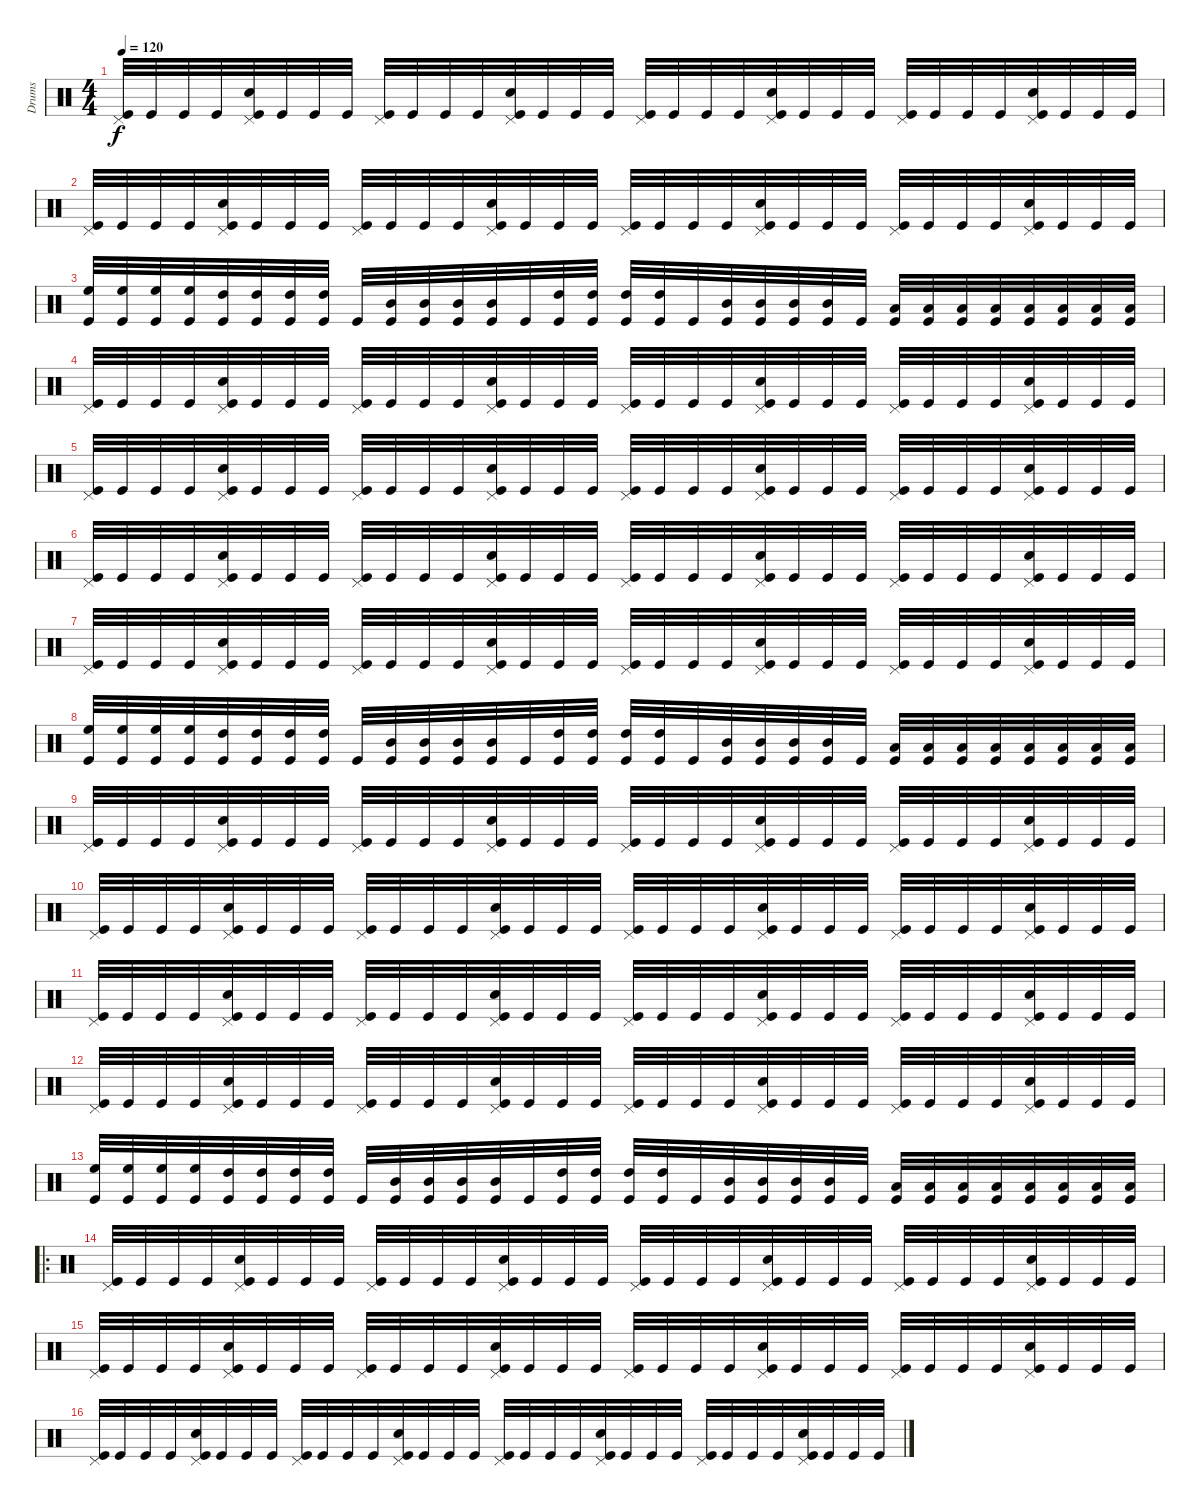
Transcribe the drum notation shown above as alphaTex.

\track ("Drums" "Drums") {instrument percussion}
\staff {score}
\articulation defaults
\ts (4 4)
\tempo 120
\clef neutral
\ks c
("Kick (hit)" "Pedal Hi-Hat (hit)").32{dy f} "Kick (hit)".32 "Kick (hit)".32 "Kick (hit)".32 ("Kick (hit)" "Snare (hit) 2" "Pedal Hi-Hat (hit)").32 "Kick (hit)".32 "Kick (hit)".32 "Kick (hit)".32 ("Kick (hit)" "Pedal Hi-Hat (hit)").32 "Kick (hit)".32 "Kick (hit)".32 "Kick (hit)".32 ("Kick (hit)" "Snare (hit) 2" "Pedal Hi-Hat (hit)").32 "Kick (hit)".32 "Kick (hit)".32 "Kick (hit)".32 ("Kick (hit)" "Pedal Hi-Hat (hit)").32 "Kick (hit)".32 "Kick (hit)".32 "Kick (hit)".32 ("Kick (hit)" "Snare (hit) 2" "Pedal Hi-Hat (hit)").32 "Kick (hit)".32 "Kick (hit)".32 "Kick (hit)".32 ("Kick (hit)" "Pedal Hi-Hat (hit)").32 "Kick (hit)".32 "Kick (hit)".32 "Kick (hit)".32 ("Kick (hit)" "Snare (hit) 2" "Pedal Hi-Hat (hit)").32 "Kick (hit)".32 "Kick (hit)".32 "Kick (hit)".32 |
("Kick (hit)" "Pedal Hi-Hat (hit)").32 "Kick (hit)".32 "Kick (hit)".32 "Kick (hit)".32 ("Kick (hit)" "Snare (hit) 2" "Pedal Hi-Hat (hit)").32 "Kick (hit)".32 "Kick (hit)".32 "Kick (hit)".32 ("Kick (hit)" "Pedal Hi-Hat (hit)").32 "Kick (hit)".32 "Kick (hit)".32 "Kick (hit)".32 ("Kick (hit)" "Snare (hit) 2" "Pedal Hi-Hat (hit)").32 "Kick (hit)".32 "Kick (hit)".32 "Kick (hit)".32 ("Kick (hit)" "Pedal Hi-Hat (hit)").32 "Kick (hit)".32 "Kick (hit)".32 "Kick (hit)".32 ("Kick (hit)" "Snare (hit) 2" "Pedal Hi-Hat (hit)").32 "Kick (hit)".32 "Kick (hit)".32 "Kick (hit)".32 ("Kick (hit)" "Pedal Hi-Hat (hit)").32 "Kick (hit)".32 "Kick (hit)".32 "Kick (hit)".32 ("Kick (hit)" "Snare (hit) 2" "Pedal Hi-Hat (hit)").32 "Kick (hit)".32 "Kick (hit)".32 "Kick (hit)".32 |
("Kick (hit)" "High Floor Tom (hit)").32 ("Kick (hit)" "High Floor Tom (hit)").32 ("Kick (hit)" "High Floor Tom (hit)").32 ("Kick (hit)" "High Floor Tom (hit)").32 ("Kick (hit)" "High Tom (hit)").32 ("Kick (hit)" "High Tom (hit)").32 ("Kick (hit)" "High Tom (hit)").32 ("Kick (hit)" "High Tom (hit)").32 "Kick (hit)".32 ("Kick (hit)" "Mid Tom (hit)").32 ("Kick (hit)" "Mid Tom (hit)").32 ("Kick (hit)" "Mid Tom (hit)").32 ("Kick (hit)" "Mid Tom (hit)").32 "Kick (hit)".32 ("Kick (hit)" "High Tom (hit)").32 ("Kick (hit)" "High Tom (hit)").32 ("Kick (hit)" "High Tom (hit)").32 ("Kick (hit)" "High Tom (hit)").32 "Kick (hit)".32 ("Kick (hit)" "Mid Tom (hit)").32 ("Kick (hit)" "Mid Tom (hit)").32 ("Kick (hit)" "Mid Tom (hit)").32 ("Kick (hit)" "Mid Tom (hit)").32 "Kick (hit)".32 ("Kick (hit)" "Low Tom (hit)").32 ("Kick (hit)" "Low Tom (hit)").32 ("Kick (hit)" "Low Tom (hit)").32 ("Kick (hit)" "Low Tom (hit)").32 ("Kick (hit)" "Low Tom (hit)").32 ("Kick (hit)" "Low Tom (hit)").32 ("Kick (hit)" "Low Tom (hit)").32 ("Kick (hit)" "Low Tom (hit)").32 |
("Kick (hit)" "Pedal Hi-Hat (hit)").32 "Kick (hit)".32 "Kick (hit)".32 "Kick (hit)".32 ("Kick (hit)" "Snare (hit) 2" "Pedal Hi-Hat (hit)").32 "Kick (hit)".32 "Kick (hit)".32 "Kick (hit)".32 ("Kick (hit)" "Pedal Hi-Hat (hit)").32 "Kick (hit)".32 "Kick (hit)".32 "Kick (hit)".32 ("Kick (hit)" "Snare (hit) 2" "Pedal Hi-Hat (hit)").32 "Kick (hit)".32 "Kick (hit)".32 "Kick (hit)".32 ("Kick (hit)" "Pedal Hi-Hat (hit)").32 "Kick (hit)".32 "Kick (hit)".32 "Kick (hit)".32 ("Kick (hit)" "Snare (hit) 2" "Pedal Hi-Hat (hit)").32 "Kick (hit)".32 "Kick (hit)".32 "Kick (hit)".32 ("Kick (hit)" "Pedal Hi-Hat (hit)").32 "Kick (hit)".32 "Kick (hit)".32 "Kick (hit)".32 ("Kick (hit)" "Snare (hit) 2" "Pedal Hi-Hat (hit)").32 "Kick (hit)".32 "Kick (hit)".32 "Kick (hit)".32 |
("Kick (hit)" "Pedal Hi-Hat (hit)").32 "Kick (hit)".32 "Kick (hit)".32 "Kick (hit)".32 ("Kick (hit)" "Snare (hit) 2" "Pedal Hi-Hat (hit)").32 "Kick (hit)".32 "Kick (hit)".32 "Kick (hit)".32 ("Kick (hit)" "Pedal Hi-Hat (hit)").32 "Kick (hit)".32 "Kick (hit)".32 "Kick (hit)".32 ("Kick (hit)" "Snare (hit) 2" "Pedal Hi-Hat (hit)").32 "Kick (hit)".32 "Kick (hit)".32 "Kick (hit)".32 ("Kick (hit)" "Pedal Hi-Hat (hit)").32 "Kick (hit)".32 "Kick (hit)".32 "Kick (hit)".32 ("Kick (hit)" "Snare (hit) 2" "Pedal Hi-Hat (hit)").32 "Kick (hit)".32 "Kick (hit)".32 "Kick (hit)".32 ("Kick (hit)" "Pedal Hi-Hat (hit)").32 "Kick (hit)".32 "Kick (hit)".32 "Kick (hit)".32 ("Kick (hit)" "Snare (hit) 2" "Pedal Hi-Hat (hit)").32 "Kick (hit)".32 "Kick (hit)".32 "Kick (hit)".32 |
("Kick (hit)" "Pedal Hi-Hat (hit)").32 "Kick (hit)".32 "Kick (hit)".32 "Kick (hit)".32 ("Kick (hit)" "Snare (hit) 2" "Pedal Hi-Hat (hit)").32 "Kick (hit)".32 "Kick (hit)".32 "Kick (hit)".32 ("Kick (hit)" "Pedal Hi-Hat (hit)").32 "Kick (hit)".32 "Kick (hit)".32 "Kick (hit)".32 ("Kick (hit)" "Snare (hit) 2" "Pedal Hi-Hat (hit)").32 "Kick (hit)".32 "Kick (hit)".32 "Kick (hit)".32 ("Kick (hit)" "Pedal Hi-Hat (hit)").32 "Kick (hit)".32 "Kick (hit)".32 "Kick (hit)".32 ("Kick (hit)" "Snare (hit) 2" "Pedal Hi-Hat (hit)").32 "Kick (hit)".32 "Kick (hit)".32 "Kick (hit)".32 ("Kick (hit)" "Pedal Hi-Hat (hit)").32 "Kick (hit)".32 "Kick (hit)".32 "Kick (hit)".32 ("Kick (hit)" "Snare (hit) 2" "Pedal Hi-Hat (hit)").32 "Kick (hit)".32 "Kick (hit)".32 "Kick (hit)".32 |
("Kick (hit)" "Pedal Hi-Hat (hit)").32 "Kick (hit)".32 "Kick (hit)".32 "Kick (hit)".32 ("Kick (hit)" "Snare (hit) 2" "Pedal Hi-Hat (hit)").32 "Kick (hit)".32 "Kick (hit)".32 "Kick (hit)".32 ("Kick (hit)" "Pedal Hi-Hat (hit)").32 "Kick (hit)".32 "Kick (hit)".32 "Kick (hit)".32 ("Kick (hit)" "Snare (hit) 2" "Pedal Hi-Hat (hit)").32 "Kick (hit)".32 "Kick (hit)".32 "Kick (hit)".32 ("Kick (hit)" "Pedal Hi-Hat (hit)").32 "Kick (hit)".32 "Kick (hit)".32 "Kick (hit)".32 ("Kick (hit)" "Snare (hit) 2" "Pedal Hi-Hat (hit)").32 "Kick (hit)".32 "Kick (hit)".32 "Kick (hit)".32 ("Kick (hit)" "Pedal Hi-Hat (hit)").32 "Kick (hit)".32 "Kick (hit)".32 "Kick (hit)".32 ("Kick (hit)" "Snare (hit) 2" "Pedal Hi-Hat (hit)").32 "Kick (hit)".32 "Kick (hit)".32 "Kick (hit)".32 |
("Kick (hit)" "High Floor Tom (hit)").32 ("Kick (hit)" "High Floor Tom (hit)").32 ("Kick (hit)" "High Floor Tom (hit)").32 ("Kick (hit)" "High Floor Tom (hit)").32 ("Kick (hit)" "High Tom (hit)").32 ("Kick (hit)" "High Tom (hit)").32 ("Kick (hit)" "High Tom (hit)").32 ("Kick (hit)" "High Tom (hit)").32 "Kick (hit)".32 ("Kick (hit)" "Mid Tom (hit)").32 ("Kick (hit)" "Mid Tom (hit)").32 ("Kick (hit)" "Mid Tom (hit)").32 ("Kick (hit)" "Mid Tom (hit)").32 "Kick (hit)".32 ("Kick (hit)" "High Tom (hit)").32 ("Kick (hit)" "High Tom (hit)").32 ("Kick (hit)" "High Tom (hit)").32 ("Kick (hit)" "High Tom (hit)").32 "Kick (hit)".32 ("Kick (hit)" "Mid Tom (hit)").32 ("Kick (hit)" "Mid Tom (hit)").32 ("Kick (hit)" "Mid Tom (hit)").32 ("Kick (hit)" "Mid Tom (hit)").32 "Kick (hit)".32 ("Kick (hit)" "Low Tom (hit)").32 ("Kick (hit)" "Low Tom (hit)").32 ("Kick (hit)" "Low Tom (hit)").32 ("Kick (hit)" "Low Tom (hit)").32 ("Kick (hit)" "Low Tom (hit)").32 ("Kick (hit)" "Low Tom (hit)").32 ("Kick (hit)" "Low Tom (hit)").32 ("Kick (hit)" "Low Tom (hit)").32 |
("Kick (hit)" "Pedal Hi-Hat (hit)").32 "Kick (hit)".32 "Kick (hit)".32 "Kick (hit)".32 ("Kick (hit)" "Snare (hit) 2" "Pedal Hi-Hat (hit)").32{volume 12} "Kick (hit)".32 "Kick (hit)".32 "Kick (hit)".32 ("Kick (hit)" "Pedal Hi-Hat (hit)").32 "Kick (hit)".32 "Kick (hit)".32 "Kick (hit)".32 ("Kick (hit)" "Snare (hit) 2" "Pedal Hi-Hat (hit)").32 "Kick (hit)".32 "Kick (hit)".32 "Kick (hit)".32 ("Kick (hit)" "Pedal Hi-Hat (hit)").32 "Kick (hit)".32 "Kick (hit)".32 "Kick (hit)".32 ("Kick (hit)" "Snare (hit) 2" "Pedal Hi-Hat (hit)").32 "Kick (hit)".32 "Kick (hit)".32 "Kick (hit)".32 ("Kick (hit)" "Pedal Hi-Hat (hit)").32 "Kick (hit)".32 "Kick (hit)".32 "Kick (hit)".32 ("Kick (hit)" "Snare (hit) 2" "Pedal Hi-Hat (hit)").32 "Kick (hit)".32 "Kick (hit)".32 "Kick (hit)".32 |
("Kick (hit)" "Pedal Hi-Hat (hit)").32 "Kick (hit)".32 "Kick (hit)".32 "Kick (hit)".32 ("Kick (hit)" "Snare (hit) 2" "Pedal Hi-Hat (hit)").32 "Kick (hit)".32 "Kick (hit)".32 "Kick (hit)".32 ("Kick (hit)" "Pedal Hi-Hat (hit)").32 "Kick (hit)".32 "Kick (hit)".32 "Kick (hit)".32 ("Kick (hit)" "Snare (hit) 2" "Pedal Hi-Hat (hit)").32 "Kick (hit)".32 "Kick (hit)".32 "Kick (hit)".32 ("Kick (hit)" "Pedal Hi-Hat (hit)").32 "Kick (hit)".32 "Kick (hit)".32 "Kick (hit)".32 ("Kick (hit)" "Snare (hit) 2" "Pedal Hi-Hat (hit)").32 "Kick (hit)".32 "Kick (hit)".32 "Kick (hit)".32 ("Kick (hit)" "Pedal Hi-Hat (hit)").32 "Kick (hit)".32 "Kick (hit)".32 "Kick (hit)".32 ("Kick (hit)" "Snare (hit) 2" "Pedal Hi-Hat (hit)").32 "Kick (hit)".32 "Kick (hit)".32 "Kick (hit)".32 |
("Kick (hit)" "Pedal Hi-Hat (hit)").32 "Kick (hit)".32 "Kick (hit)".32 "Kick (hit)".32 ("Kick (hit)" "Snare (hit) 2" "Pedal Hi-Hat (hit)").32 "Kick (hit)".32 "Kick (hit)".32 "Kick (hit)".32 ("Kick (hit)" "Pedal Hi-Hat (hit)").32 "Kick (hit)".32 "Kick (hit)".32 "Kick (hit)".32 ("Kick (hit)" "Snare (hit) 2" "Pedal Hi-Hat (hit)").32 "Kick (hit)".32 "Kick (hit)".32 "Kick (hit)".32 ("Kick (hit)" "Pedal Hi-Hat (hit)").32 "Kick (hit)".32 "Kick (hit)".32 "Kick (hit)".32 ("Kick (hit)" "Snare (hit) 2" "Pedal Hi-Hat (hit)").32 "Kick (hit)".32 "Kick (hit)".32 "Kick (hit)".32 ("Kick (hit)" "Pedal Hi-Hat (hit)").32 "Kick (hit)".32 "Kick (hit)".32 "Kick (hit)".32 ("Kick (hit)" "Snare (hit) 2" "Pedal Hi-Hat (hit)").32 "Kick (hit)".32 "Kick (hit)".32 "Kick (hit)".32 |
("Kick (hit)" "Pedal Hi-Hat (hit)").32 "Kick (hit)".32 "Kick (hit)".32 "Kick (hit)".32 ("Kick (hit)" "Snare (hit) 2" "Pedal Hi-Hat (hit)").32 "Kick (hit)".32 "Kick (hit)".32 "Kick (hit)".32 ("Kick (hit)" "Pedal Hi-Hat (hit)").32 "Kick (hit)".32 "Kick (hit)".32 "Kick (hit)".32 ("Kick (hit)" "Snare (hit) 2" "Pedal Hi-Hat (hit)").32 "Kick (hit)".32 "Kick (hit)".32 "Kick (hit)".32 ("Kick (hit)" "Pedal Hi-Hat (hit)").32 "Kick (hit)".32 "Kick (hit)".32 "Kick (hit)".32 ("Kick (hit)" "Snare (hit) 2" "Pedal Hi-Hat (hit)").32 "Kick (hit)".32 "Kick (hit)".32 "Kick (hit)".32 ("Kick (hit)" "Pedal Hi-Hat (hit)").32 "Kick (hit)".32 "Kick (hit)".32 "Kick (hit)".32 ("Kick (hit)" "Snare (hit) 2" "Pedal Hi-Hat (hit)").32 "Kick (hit)".32 "Kick (hit)".32 "Kick (hit)".32 |
("Kick (hit)" "High Floor Tom (hit)").32 ("Kick (hit)" "High Floor Tom (hit)").32 ("Kick (hit)" "High Floor Tom (hit)").32 ("Kick (hit)" "High Floor Tom (hit)").32 ("Kick (hit)" "High Tom (hit)").32 ("Kick (hit)" "High Tom (hit)").32 ("Kick (hit)" "High Tom (hit)").32 ("Kick (hit)" "High Tom (hit)").32 "Kick (hit)".32 ("Kick (hit)" "Mid Tom (hit)").32 ("Kick (hit)" "Mid Tom (hit)").32 ("Kick (hit)" "Mid Tom (hit)").32 ("Kick (hit)" "Mid Tom (hit)").32 "Kick (hit)".32 ("Kick (hit)" "High Tom (hit)").32 ("Kick (hit)" "High Tom (hit)").32 ("Kick (hit)" "High Tom (hit)").32 ("Kick (hit)" "High Tom (hit)").32 "Kick (hit)".32 ("Kick (hit)" "Mid Tom (hit)").32 ("Kick (hit)" "Mid Tom (hit)").32 ("Kick (hit)" "Mid Tom (hit)").32 ("Kick (hit)" "Mid Tom (hit)").32 "Kick (hit)".32 ("Kick (hit)" "Low Tom (hit)").32 ("Kick (hit)" "Low Tom (hit)").32 ("Kick (hit)" "Low Tom (hit)").32 ("Kick (hit)" "Low Tom (hit)").32 ("Kick (hit)" "Low Tom (hit)").32 ("Kick (hit)" "Low Tom (hit)").32 ("Kick (hit)" "Low Tom (hit)").32 ("Kick (hit)" "Low Tom (hit)").32 |
\ro
("Kick (hit)" "Pedal Hi-Hat (hit)").32{volume 14} "Kick (hit)".32 "Kick (hit)".32 "Kick (hit)".32 ("Kick (hit)" "Snare (hit) 2" "Pedal Hi-Hat (hit)").32 "Kick (hit)".32 "Kick (hit)".32 "Kick (hit)".32 ("Kick (hit)" "Pedal Hi-Hat (hit)").32 "Kick (hit)".32 "Kick (hit)".32 "Kick (hit)".32 ("Kick (hit)" "Snare (hit) 2" "Pedal Hi-Hat (hit)").32 "Kick (hit)".32 "Kick (hit)".32 "Kick (hit)".32 ("Kick (hit)" "Pedal Hi-Hat (hit)").32 "Kick (hit)".32 "Kick (hit)".32 "Kick (hit)".32 ("Kick (hit)" "Snare (hit) 2" "Pedal Hi-Hat (hit)").32 "Kick (hit)".32 "Kick (hit)".32 "Kick (hit)".32 ("Kick (hit)" "Pedal Hi-Hat (hit)").32 "Kick (hit)".32 "Kick (hit)".32 "Kick (hit)".32 ("Kick (hit)" "Snare (hit) 2" "Pedal Hi-Hat (hit)").32 "Kick (hit)".32 "Kick (hit)".32 "Kick (hit)".32 |
("Kick (hit)" "Pedal Hi-Hat (hit)").32 "Kick (hit)".32 "Kick (hit)".32 "Kick (hit)".32 ("Kick (hit)" "Snare (hit) 2" "Pedal Hi-Hat (hit)").32 "Kick (hit)".32 "Kick (hit)".32 "Kick (hit)".32 ("Kick (hit)" "Pedal Hi-Hat (hit)").32 "Kick (hit)".32 "Kick (hit)".32 "Kick (hit)".32 ("Kick (hit)" "Snare (hit) 2" "Pedal Hi-Hat (hit)").32 "Kick (hit)".32 "Kick (hit)".32 "Kick (hit)".32 ("Kick (hit)" "Pedal Hi-Hat (hit)").32 "Kick (hit)".32 "Kick (hit)".32 "Kick (hit)".32 ("Kick (hit)" "Snare (hit) 2" "Pedal Hi-Hat (hit)").32 "Kick (hit)".32 "Kick (hit)".32 "Kick (hit)".32 ("Kick (hit)" "Pedal Hi-Hat (hit)").32 "Kick (hit)".32 "Kick (hit)".32 "Kick (hit)".32 ("Kick (hit)" "Snare (hit) 2" "Pedal Hi-Hat (hit)").32 "Kick (hit)".32 "Kick (hit)".32 "Kick (hit)".32 |
("Kick (hit)" "Pedal Hi-Hat (hit)").32 "Kick (hit)".32 "Kick (hit)".32 "Kick (hit)".32 ("Kick (hit)" "Snare (hit) 2" "Pedal Hi-Hat (hit)").32 "Kick (hit)".32 "Kick (hit)".32 "Kick (hit)".32 ("Kick (hit)" "Pedal Hi-Hat (hit)").32 "Kick (hit)".32 "Kick (hit)".32 "Kick (hit)".32 ("Kick (hit)" "Snare (hit) 2" "Pedal Hi-Hat (hit)").32 "Kick (hit)".32 "Kick (hit)".32 "Kick (hit)".32 ("Kick (hit)" "Pedal Hi-Hat (hit)").32 "Kick (hit)".32 "Kick (hit)".32 "Kick (hit)".32 ("Kick (hit)" "Snare (hit) 2" "Pedal Hi-Hat (hit)").32 "Kick (hit)".32 "Kick (hit)".32 "Kick (hit)".32 ("Kick (hit)" "Pedal Hi-Hat (hit)").32 "Kick (hit)".32 "Kick (hit)".32 "Kick (hit)".32 ("Kick (hit)" "Snare (hit) 2" "Pedal Hi-Hat (hit)").32 "Kick (hit)".32 "Kick (hit)".32 "Kick (hit)".32
